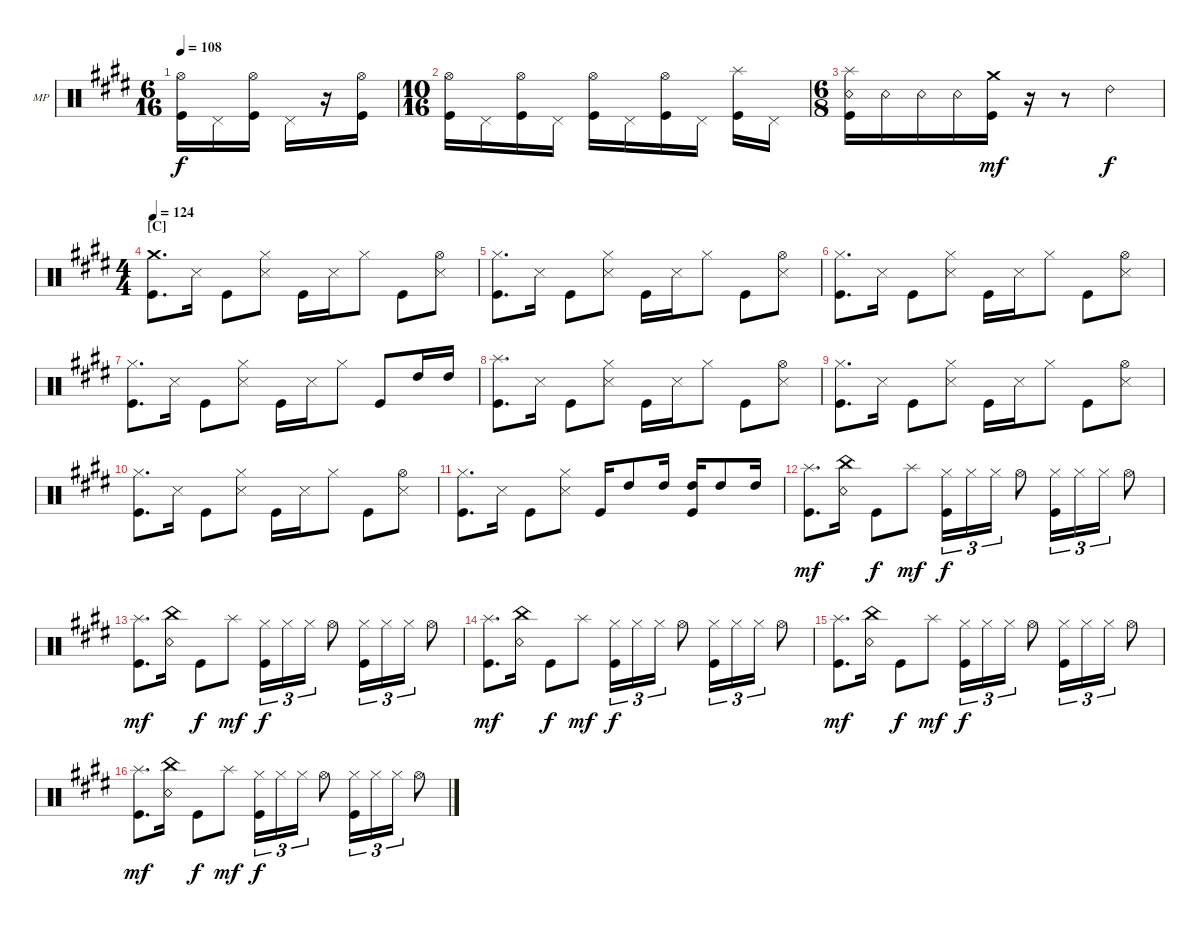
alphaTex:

\defaultSystemsLayout 4
\bracketExtendMode groupsimilarinstruments
\firstSystemTrackNameOrientation horizontal
\otherSystemsTrackNameOrientation horizontal
\track ("Mike Portnoy" "MP") {instrument percussion}
\staff {score}
\articulation defaults
\ts (6 16)
\tempo 108
\clef neutral
\ks e
("Hi-Hat (open)" "Kick (hit)").16{dy f} "Pedal Hi-Hat (hit)".16 ("Hi-Hat (open)" "Kick (hit)").16 "Pedal Hi-Hat (hit)".16 r.16 ("Hi-Hat (open)" "Kick (hit)").16 |
\ts (10 16)
("Hi-Hat (open)" "Kick (hit)").16 "Pedal Hi-Hat (hit)".16 ("Hi-Hat (open)" "Kick (hit)").16 "Pedal Hi-Hat (hit)".16 ("Hi-Hat (open)" "Kick (hit)").16 "Pedal Hi-Hat (hit)".16 ("Hi-Hat (open)" "Kick (hit)").16 "Pedal Hi-Hat (hit)".16 ("Splash (hit)" "Kick (hit)").16 "Pedal Hi-Hat (hit)".16 |
\ts (6 8)
("Splash (hit)" "Snare (rim shot)" "Kick (hit)").16 "Snare (rim shot)".16 "Snare (rim shot)".16 "Snare (rim shot)".16 ("Crash medium (hit)" "Kick (hit)").16{dy mf} r.16 r.8 "Ride (bell) 2".4{dy f} |
\ts (4 4)
\section ("C" "")
\tempo 124
("Crash medium (hit)" "Kick (hit)").8{d} "Snare (side stick) 3".16 "Kick (hit)".8 ("Hi-Hat (closed)" "Snare (side stick) 3").8 "Kick (hit)".16 "Snare (side stick) 3".16 "Hi-Hat (closed)".8 "Kick (hit)".8 ("Hi-Hat (open)" "Snare (side stick) 3").8 |
("Hi-Hat (closed)" "Kick (hit)").8{d} "Snare (side stick) 3".16 "Kick (hit)".8 ("Hi-Hat (closed)" "Snare (side stick) 3").8 "Kick (hit)".16 "Snare (side stick) 3".16 "Hi-Hat (closed)".8 "Kick (hit)".8 ("Hi-Hat (open)" "Snare (side stick) 3").8 |
("Hi-Hat (closed)" "Kick (hit)").8{d} "Snare (side stick) 3".16 "Kick (hit)".8 ("Hi-Hat (closed)" "Snare (side stick) 3").8 "Kick (hit)".16 "Snare (side stick) 3".16 "Hi-Hat (closed)".8 "Kick (hit)".8 ("Hi-Hat (open)" "Snare (side stick) 3").8 |
("Hi-Hat (closed)" "Kick (hit)").8{d} "Snare (side stick) 3".16 "Kick (hit)".8 ("Hi-Hat (closed)" "Snare (side stick) 3").8 "Kick (hit)".16 "Snare (side stick) 3".16 "Hi-Hat (closed)".8 "Kick (hit)".8 "High Tom (hit)".16 "High Tom (hit)".16 |
("Splash (hit)" "Kick (hit)").8{d} "Snare (side stick) 3".16 "Kick (hit)".8 ("Hi-Hat (closed)" "Snare (side stick) 3").8 "Kick (hit)".16 "Snare (side stick) 3".16 "Hi-Hat (closed)".8 "Kick (hit)".8 ("Hi-Hat (open)" "Snare (side stick) 3").8 |
("Hi-Hat (closed)" "Kick (hit)").8{d} "Snare (side stick) 3".16 "Kick (hit)".8 ("Hi-Hat (closed)" "Snare (side stick) 3").8 "Kick (hit)".16 "Snare (side stick) 3".16 "Hi-Hat (closed)".8 "Kick (hit)".8 ("Hi-Hat (open)" "Snare (side stick) 3").8 |
("Hi-Hat (closed)" "Kick (hit)").8{d} "Snare (side stick) 3".16 "Kick (hit)".8 ("Hi-Hat (closed)" "Snare (side stick) 3").8 "Kick (hit)".16 "Snare (side stick) 3".16 "Hi-Hat (closed)".8 "Kick (hit)".8 ("Hi-Hat (open)" "Snare (side stick) 3").8 |
("Hi-Hat (closed)" "Kick (hit)").8{d} "Snare (side stick) 3".16 "Kick (hit)".8 ("Hi-Hat (closed)" "Snare (side stick) 3").8 "Kick (hit)".16 "High Tom (hit)".8 "High Tom (hit)".16 ("High Tom (hit)" "Kick (hit)").16 "High Tom (hit)".8 "High Tom (hit)".16 |
("Splash (hit)" "Kick (hit)").8{d dy mf} ("China (hit)" "Snare (rim shot)").16 "Kick (hit)".8{dy f} "Splash (hit)".8{dy mf} ("Hi-Hat (closed)" "Kick (hit)").16{tu (3 2) dy f} "Hi-Hat (closed)".16{tu (3 2)} "Hi-Hat (closed)".16{tu (3 2)} "Hi-Hat (open)".8 ("Hi-Hat (closed)" "Kick (hit)").16{tu (3 2)} "Hi-Hat (closed)".16{tu (3 2)} "Hi-Hat (closed)".16{tu (3 2)} "Hi-Hat (open)".8 |
("Splash (hit)" "Kick (hit)").8{d dy mf} ("China (hit)" "Snare (rim shot)").16 "Kick (hit)".8{dy f} "Splash (hit)".8{dy mf} ("Hi-Hat (closed)" "Kick (hit)").16{tu (3 2) dy f} "Hi-Hat (closed)".16{tu (3 2)} "Hi-Hat (closed)".16{tu (3 2)} "Hi-Hat (open)".8 ("Hi-Hat (closed)" "Kick (hit)").16{tu (3 2)} "Hi-Hat (closed)".16{tu (3 2)} "Hi-Hat (closed)".16{tu (3 2)} "Hi-Hat (open)".8 |
("Splash (hit)" "Kick (hit)").8{d dy mf} ("China (hit)" "Snare (rim shot)").16 "Kick (hit)".8{dy f} "Splash (hit)".8{dy mf} ("Hi-Hat (closed)" "Kick (hit)").16{tu (3 2) dy f} "Hi-Hat (closed)".16{tu (3 2)} "Hi-Hat (closed)".16{tu (3 2)} "Hi-Hat (open)".8 ("Hi-Hat (closed)" "Kick (hit)").16{tu (3 2)} "Hi-Hat (closed)".16{tu (3 2)} "Hi-Hat (closed)".16{tu (3 2)} "Hi-Hat (open)".8 |
("Splash (hit)" "Kick (hit)").8{d dy mf} ("China (hit)" "Snare (rim shot)").16 "Kick (hit)".8{dy f} "Splash (hit)".8{dy mf} ("Hi-Hat (closed)" "Kick (hit)").16{tu (3 2) dy f} "Hi-Hat (closed)".16{tu (3 2)} "Hi-Hat (closed)".16{tu (3 2)} "Hi-Hat (open)".8 ("Hi-Hat (closed)" "Kick (hit)").16{tu (3 2)} "Hi-Hat (closed)".16{tu (3 2)} "Hi-Hat (closed)".16{tu (3 2)} "Hi-Hat (open)".8 |
("Splash (hit)" "Kick (hit)").8{d dy mf} ("China (hit)" "Snare (rim shot)").16 "Kick (hit)".8{dy f} "Splash (hit)".8{dy mf} ("Hi-Hat (closed)" "Kick (hit)").16{tu (3 2) dy f} "Hi-Hat (closed)".16{tu (3 2)} "Hi-Hat (closed)".16{tu (3 2)} "Hi-Hat (open)".8 ("Hi-Hat (closed)" "Kick (hit)").16{tu (3 2)} "Hi-Hat (closed)".16{tu (3 2)} "Hi-Hat (closed)".16{tu (3 2)} "Hi-Hat (open)".8
